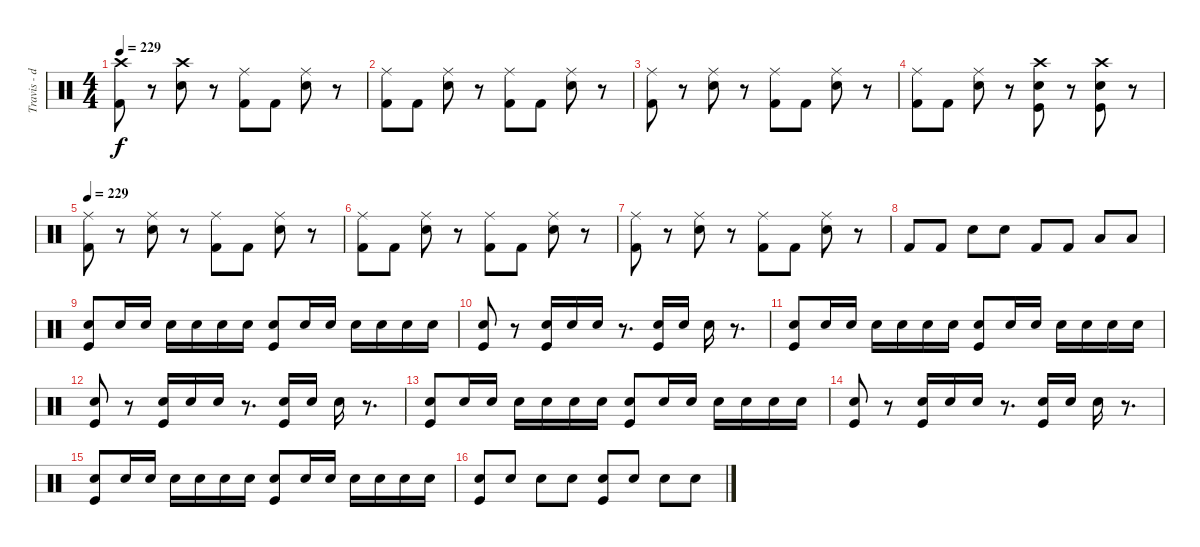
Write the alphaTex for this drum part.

\track ("Travis - drums" "Travis - d") {instrument percussion}
\staff {score}
\articulation defaults
\ts (4 4)
\tempo 229
\clef neutral
\ks c
("Crash high (hit)" "Kick (hit) 2").8{dy f} r.8 ("Crash high (hit)" "Electric Snare (hit)").8 r.8 ("Ride (middle)" "Kick (hit) 2").8 "Kick (hit) 2".8 ("Ride (middle)" "Electric Snare (hit)").8 r.8 |
("Ride (middle)" "Kick (hit) 2").8 "Kick (hit) 2".8 ("Ride (middle)" "Electric Snare (hit)").8 r.8 ("Ride (middle)" "Kick (hit) 2").8 "Kick (hit) 2".8 ("Ride (middle)" "Electric Snare (hit)").8 r.8 |
("Ride (middle)" "Kick (hit) 2").8 r.8 ("Ride (middle)" "Electric Snare (hit)").8 r.8 ("Ride (middle)" "Kick (hit) 2").8 "Kick (hit) 2".8 ("Ride (middle)" "Electric Snare (hit)").8 r.8 |
("Ride (middle)" "Kick (hit) 2").8 "Kick (hit) 2".8 ("Ride (middle)" "Electric Snare (hit)").8 r.8 ("Crash high (hit)" "Kick (hit)" "Electric Snare (hit)").8 r.8 ("Crash high (hit)" "Kick (hit)" "Electric Snare (hit)").8 r.8 |
\tempo 229
("Ride (middle)" "Kick (hit) 2").8 r.8 ("Ride (middle)" "Electric Snare (hit)").8 r.8 ("Ride (middle)" "Kick (hit) 2").8 "Kick (hit) 2".8 ("Ride (middle)" "Electric Snare (hit)").8 r.8 |
("Ride (middle)" "Kick (hit) 2").8 "Kick (hit) 2".8 ("Ride (middle)" "Electric Snare (hit)").8 r.8 ("Ride (middle)" "Kick (hit) 2").8 "Kick (hit) 2".8 ("Ride (middle)" "Electric Snare (hit)").8 r.8 |
("Ride (middle)" "Kick (hit) 2").8 r.8 ("Ride (middle)" "Electric Snare (hit)").8 r.8 ("Ride (middle)" "Kick (hit) 2").8 "Kick (hit) 2".8 ("Ride (middle)" "Electric Snare (hit)").8 r.8 |
"Kick (hit) 2".8 "Kick (hit) 2".8 "Electric Snare (hit)".8 "Electric Snare (hit)".8 "Kick (hit) 2".8 "Kick (hit) 2".8 "Low Floor Tom (hit)".8 "Low Floor Tom (hit)".8 |
("Kick (hit)" "Snare (hit) 2").8 "Electric Snare (hit)".16 "Electric Snare (hit)".16 "Electric Snare (hit)".16 "Electric Snare (hit)".16 "Electric Snare (hit)".16 "Electric Snare (hit)".16 ("Kick (hit)" "Snare (hit) 2").8 "Electric Snare (hit)".16 "Electric Snare (hit)".16 "Electric Snare (hit)".16 "Electric Snare (hit)".16 "Electric Snare (hit)".16 "Electric Snare (hit)".16 |
("Kick (hit)" "Electric Snare (hit)").8 r.8 ("Kick (hit)" "Electric Snare (hit)").16 "Electric Snare (hit)".16 "Electric Snare (hit)".16 r.8{d} ("Kick (hit)" "Electric Snare (hit)").16 "Electric Snare (hit)".16 "Electric Snare (hit)".16 r.8{d} |
("Kick (hit)" "Snare (hit) 2").8 "Electric Snare (hit)".16 "Electric Snare (hit)".16 "Electric Snare (hit)".16 "Electric Snare (hit)".16 "Electric Snare (hit)".16 "Electric Snare (hit)".16 ("Kick (hit)" "Snare (hit) 2").8 "Electric Snare (hit)".16 "Electric Snare (hit)".16 "Electric Snare (hit)".16 "Electric Snare (hit)".16 "Electric Snare (hit)".16 "Electric Snare (hit)".16 |
("Kick (hit)" "Electric Snare (hit)").8 r.8 ("Kick (hit)" "Electric Snare (hit)").16 "Electric Snare (hit)".16 "Electric Snare (hit)".16 r.8{d} ("Kick (hit)" "Electric Snare (hit)").16 "Electric Snare (hit)".16 "Electric Snare (hit)".16 r.8{d} |
("Kick (hit)" "Snare (hit) 2").8 "Electric Snare (hit)".16 "Electric Snare (hit)".16 "Electric Snare (hit)".16 "Electric Snare (hit)".16 "Electric Snare (hit)".16 "Electric Snare (hit)".16 ("Kick (hit)" "Snare (hit) 2").8 "Electric Snare (hit)".16 "Electric Snare (hit)".16 "Electric Snare (hit)".16 "Electric Snare (hit)".16 "Electric Snare (hit)".16 "Electric Snare (hit)".16 |
("Kick (hit)" "Electric Snare (hit)").8 r.8 ("Kick (hit)" "Electric Snare (hit)").16 "Electric Snare (hit)".16 "Electric Snare (hit)".16 r.8{d} ("Kick (hit)" "Electric Snare (hit)").16 "Electric Snare (hit)".16 "Electric Snare (hit)".16 r.8{d} |
("Kick (hit)" "Snare (hit) 2").8 "Electric Snare (hit)".16 "Electric Snare (hit)".16 "Electric Snare (hit)".16 "Electric Snare (hit)".16 "Electric Snare (hit)".16 "Electric Snare (hit)".16 ("Kick (hit)" "Snare (hit) 2").8 "Electric Snare (hit)".16 "Electric Snare (hit)".16 "Electric Snare (hit)".16 "Electric Snare (hit)".16 "Electric Snare (hit)".16 "Electric Snare (hit)".16 |
("Kick (hit)" "Electric Snare (hit)").8 "Electric Snare (hit)".8 "Electric Snare (hit)".8 "Electric Snare (hit)".8 ("Kick (hit)" "Electric Snare (hit)").8 "Electric Snare (hit)".8 "Electric Snare (hit)".8 "Electric Snare (hit)".8
